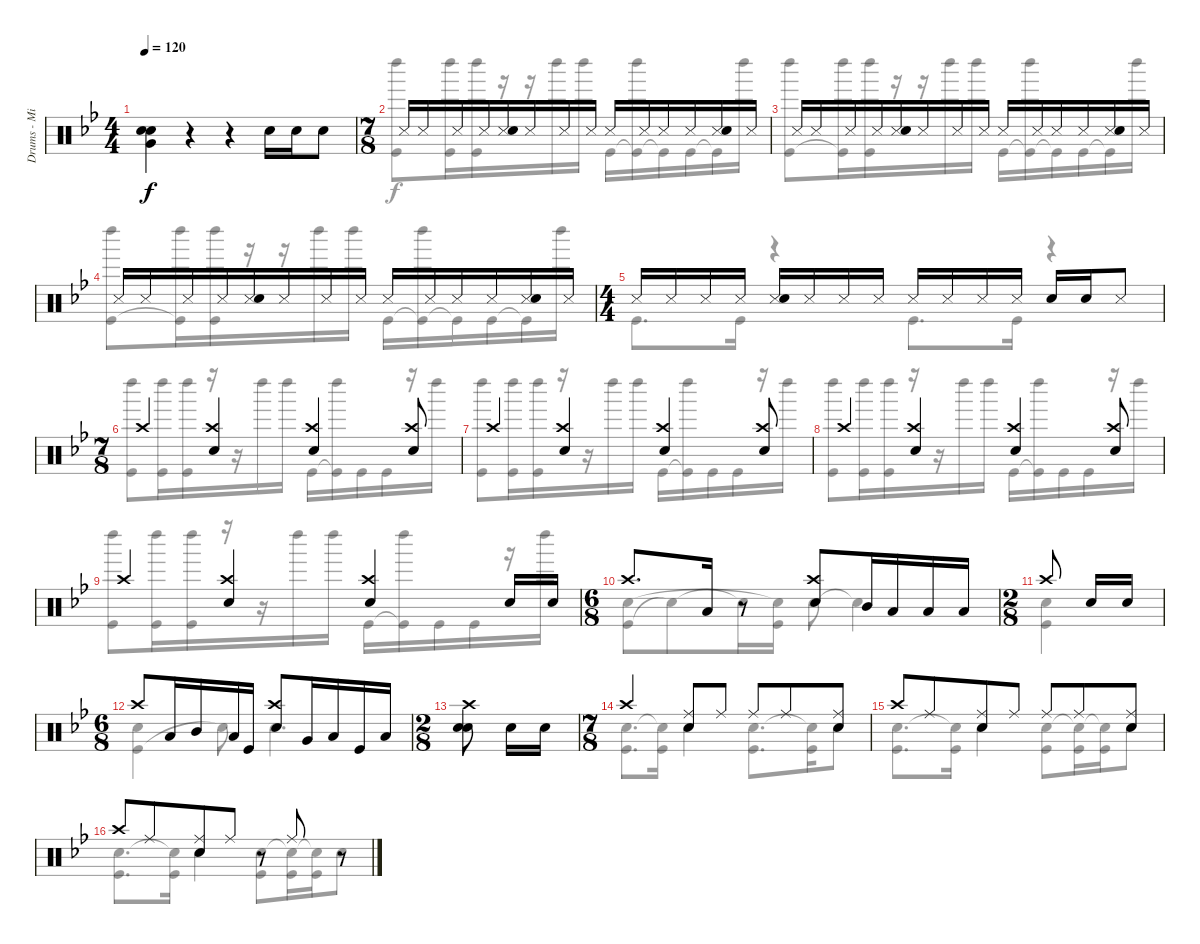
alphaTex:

\track ("Drums - Mike Portnoy" "Drums - Mi") {instrument percussion}
\staff {score}
\articulation defaults
\voice
\ts (4 4)
\tempo 120
\clef neutral
\ks bb
("Snare (hit) 2" "Very Low Tom (hit)" "Metronome (bell)").4{dy f} r.4 r.4 "Snare (hit) 2".16 "Snare (hit) 2".16 "Snare (hit) 2".8 |
\ts (7 8)
"Snare (side stick) 3".16 "Snare (side stick) 3".16 "Snare (side stick) 3".16 "Snare (side stick) 3".16 ("Snare (side stick) 3" "Snare (hit) 2").16 "Snare (side stick) 3".16 "Snare (side stick) 3".16 "Snare (side stick) 3".16 "Snare (side stick) 3".16 "Snare (side stick) 3".16 "Snare (side stick) 3".16 "Snare (side stick) 3".16 ("Snare (side stick) 3" "Snare (hit) 2").16 "Snare (side stick) 3".16 |
"Snare (side stick) 3".16 "Snare (side stick) 3".16 "Snare (side stick) 3".16 "Snare (side stick) 3".16 ("Snare (side stick) 3" "Snare (hit) 2").16 "Snare (side stick) 3".16 "Snare (side stick) 3".16 "Snare (side stick) 3".16 "Snare (side stick) 3".16 "Snare (side stick) 3".16 "Snare (side stick) 3".16 "Snare (side stick) 3".16 ("Snare (side stick) 3" "Snare (hit) 2").16 "Snare (side stick) 3".16 |
"Snare (side stick) 3".16 "Snare (side stick) 3".16 "Snare (side stick) 3".16 "Snare (side stick) 3".16 ("Snare (side stick) 3" "Snare (hit) 2").16 "Snare (side stick) 3".16 "Snare (side stick) 3".16 "Snare (side stick) 3".16 "Snare (side stick) 3".16 "Snare (side stick) 3".16 "Snare (side stick) 3".16 "Snare (side stick) 3".16 ("Snare (side stick) 3" "Snare (hit) 2").16 "Snare (side stick) 3".16 |
\ts (4 4)
"Snare (side stick) 3".16 "Snare (side stick) 3".16 "Snare (side stick) 3".16 "Snare (side stick) 3".16 ("Snare (side stick) 3" "Snare (hit) 2").16 "Snare (side stick) 3".16 "Snare (side stick) 3".16 "Snare (side stick) 3".16 "Snare (side stick) 3".16 "Snare (side stick) 3".16 "Snare (side stick) 3".16 "Snare (side stick) 3".16 "Snare (hit) 2".16 "Snare (hit) 2".16 "Snare (side stick) 3".8 |
\ts (7 8)
"Crash high (hit)".4 ("Crash high (hit)" "Snare (hit) 2").4 ("Crash high (hit)" "Snare (hit) 2").4 ("Crash high (hit)" "Snare (hit) 2").8 |
"Crash high (hit)".4 ("Crash high (hit)" "Snare (hit) 2").4 ("Crash high (hit)" "Snare (hit) 2").4 ("Crash high (hit)" "Snare (hit) 2").8 |
"Crash high (hit)".4 ("Crash high (hit)" "Snare (hit) 2").4 ("Crash high (hit)" "Snare (hit) 2").4 ("Crash high (hit)" "Snare (hit) 2").8 |
"Crash high (hit)".4 ("Crash high (hit)" "Snare (hit) 2").4 ("Crash high (hit)" "Snare (hit) 2").4 "Snare (hit) 2".16 "Snare (hit) 2".16 |
\ts (6 8)
"Crash high (hit)".8{d} "Low Tom (hit)".16 r.8 ("Crash high (hit)" "Snare (hit) 2").8 "Mid Tom (hit)".16 "Low Tom (hit)".16 "Low Tom (hit)".16 "Low Tom (hit)".16 |
\ts (2 8)
"Crash high (hit)".8 "Snare (hit) 2".16 "Snare (hit) 2".16 |
\ts (6 8)
"Crash high (hit)".8 "Low Tom (hit)".16 "Mid Tom (hit)".16 "Low Tom (hit)".16 "Kick (hit)".16 ("Crash high (hit)" "Snare (hit) 2").8 "Very Low Tom (hit)".16 "Low Tom (hit)".16 "Kick (hit)".16 "Low Tom (hit)".16 |
\ts (2 8)
("Crash high (hit)" "Snare (hit) 2" "Metronome (bell)").8 "Snare (hit) 2".16 "Snare (hit) 2".16 |
\ts (7 8)
"Crash high (hit)".4 ("Ride (middle)" "Snare (hit) 2").8 "Ride (middle)".8 "Ride (middle)".8 "Ride (middle)".8 ("Ride (middle)" "Snare (hit) 2").8 |
"Crash high (hit)".8 "Ride (middle)".8 ("Ride (middle)" "Snare (hit) 2").8 "Ride (middle)".8 "Ride (middle)".8 "Ride (middle)".8 ("Ride (middle)" "Snare (hit) 2").8 |
"Crash high (hit)".8 "Ride (middle)".8 ("Ride (middle)" "Snare (hit) 2").8 "Ride (middle)".8 r.8 "Ride (middle)".8 r.8
\voice
\clef neutral
\ottava regular
\simile none
\ks bb
|
("Kick (hit)" "Left Maraca (hit)").8 ("Kick (hit)" "Left Maraca (hit)").16 ("Kick (hit)" "Left Maraca (hit)").16 r.16 r.16 "Left Maraca (hit)".16 "Left Maraca (hit)".16 "Kick (hit)".16 ("Kick (hit)"{t} "Left Maraca (hit)").16 "Kick (hit)"{t}.16 "Kick (hit)".16 "Kick (hit)"{t}.16 "Left Maraca (hit)".16 |
("Kick (hit)" "Left Maraca (hit)").8 ("Kick (hit)"{t} "Left Maraca (hit)").16 ("Kick (hit)" "Left Maraca (hit)").16 r.16 r.16 "Left Maraca (hit)".16 "Left Maraca (hit)".16 "Kick (hit)".16 ("Kick (hit)"{t} "Left Maraca (hit)").16 "Kick (hit)"{t}.16 "Kick (hit)".16 "Kick (hit)"{t}.16 "Left Maraca (hit)".16 |
("Kick (hit)" "Left Maraca (hit)").8 ("Kick (hit)"{t} "Left Maraca (hit)").16 ("Kick (hit)" "Left Maraca (hit)").16 r.16 r.16 "Left Maraca (hit)".16 "Left Maraca (hit)".16 "Kick (hit)".16 ("Kick (hit)"{t} "Left Maraca (hit)").16 "Kick (hit)"{t}.16 "Kick (hit)".16 "Kick (hit)"{t}.16 "Left Maraca (hit)".16 |
"Kick (hit)".8{d} "Kick (hit)".16 r.4 "Kick (hit)".8{d} "Kick (hit)".16 r.4 |
("Kick (hit)" "Left Maraca (hit)").8 ("Kick (hit)" "Left Maraca (hit)").16 ("Kick (hit)" "Left Maraca (hit)").16 r.16 r.16 "Left Maraca (hit)".16 "Left Maraca (hit)".16 "Kick (hit)".16 ("Kick (hit)"{t} "Left Maraca (hit)").16 "Kick (hit)".16 "Kick (hit)".16 r.16 "Left Maraca (hit)".16 |
("Kick (hit)" "Left Maraca (hit)").8 ("Kick (hit)" "Left Maraca (hit)").16 ("Kick (hit)" "Left Maraca (hit)").16 r.16 r.16 "Left Maraca (hit)".16 "Left Maraca (hit)".16 "Kick (hit)".16 ("Kick (hit)"{t} "Left Maraca (hit)").16 "Kick (hit)".16 "Kick (hit)".16 r.16 "Left Maraca (hit)".16 |
("Kick (hit)" "Left Maraca (hit)").8 ("Kick (hit)" "Left Maraca (hit)").16 ("Kick (hit)" "Left Maraca (hit)").16 r.16 r.16 "Left Maraca (hit)".16 "Left Maraca (hit)".16 "Kick (hit)".16 ("Kick (hit)"{t} "Left Maraca (hit)").16 "Kick (hit)".16 "Kick (hit)".16 r.16 "Left Maraca (hit)".16 |
("Kick (hit)" "Left Maraca (hit)").8 ("Kick (hit)" "Left Maraca (hit)").16 ("Kick (hit)" "Left Maraca (hit)").16 r.16 r.16 "Left Maraca (hit)".16 "Left Maraca (hit)".16 "Kick (hit)".16 ("Kick (hit)"{t} "Left Maraca (hit)").16 "Kick (hit)".16 "Kick (hit)".16 r.16 "Left Maraca (hit)".16 |
("Kick (hit)" "Metronome (bell)").8 "Snare (hit)"{t}.8 "Snare (hit)"{t}.16 ("Kick (hit)" "Snare (hit)"{t}).16 "Metronome (bell)".8 "Snare (hit)"{t}.4 |
("Kick (hit)" "Metronome (bell)").4 |
("Kick (hit)" "Metronome (bell)").4 "Snare (hit)"{t}.8 "Metronome (bell)".4{d} |
|
("Kick (hit)" "Metronome (bell)").8{d} ("Kick (hit)" "Snare (hit)"{t}).16 "Metronome (bell)".4 ("Kick (hit)" "Metronome (bell)").8{d} ("Kick (hit)" "Snare (hit)"{t}).16 "Metronome (bell)".8 |
("Kick (hit)" "Metronome (bell)").8{d} ("Kick (hit)" "Snare (hit)"{t}).16 "Metronome (bell)".4 ("Kick (hit)" "Metronome (bell)").8 ("Kick (hit)" "Snare (hit)"{t}).16 ("Kick (hit)" "Metronome (bell)"{t}).16 "Metronome (bell)".8 |
("Kick (hit)" "Metronome (bell)").8{d} ("Kick (hit)" "Snare (hit)"{t}).16 "Metronome (bell)".4 ("Kick (hit)" "Metronome (bell)").8 ("Kick (hit)" "Snare (hit)"{t}).16 ("Kick (hit)" "Metronome (bell)"{t}).16 "Metronome (bell)".8
